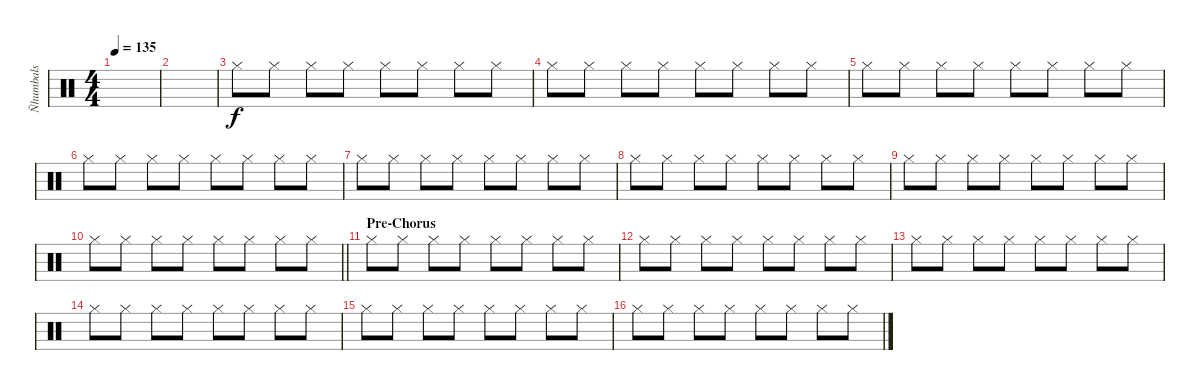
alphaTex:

\track ("Ñhumbals" "Ñhumbals") {instrument percussion}
\staff {score}
\articulation defaults
\ts (4 4)
\tempo 135
\clef neutral
\ks c
|
|
"Hi-Hat (closed)".8 "Hi-Hat (closed)".8 "Hi-Hat (closed)".8 "Hi-Hat (closed)".8 "Hi-Hat (closed)".8 "Hi-Hat (closed)".8 "Hi-Hat (closed)".8 "Hi-Hat (closed)".8 |
"Hi-Hat (closed)".8 "Hi-Hat (closed)".8 "Hi-Hat (closed)".8 "Hi-Hat (closed)".8 "Hi-Hat (closed)".8 "Hi-Hat (closed)".8 "Hi-Hat (closed)".8 "Hi-Hat (closed)".8 |
"Hi-Hat (closed)".8 "Hi-Hat (closed)".8 "Hi-Hat (closed)".8 "Hi-Hat (closed)".8 "Hi-Hat (closed)".8 "Hi-Hat (closed)".8 "Hi-Hat (closed)".8 "Hi-Hat (closed)".8 |
"Hi-Hat (closed)".8 "Hi-Hat (closed)".8 "Hi-Hat (closed)".8 "Hi-Hat (closed)".8 "Hi-Hat (closed)".8 "Hi-Hat (closed)".8 "Hi-Hat (closed)".8 "Hi-Hat (closed)".8 |
"Hi-Hat (closed)".8 "Hi-Hat (closed)".8 "Hi-Hat (closed)".8 "Hi-Hat (closed)".8 "Hi-Hat (closed)".8 "Hi-Hat (closed)".8 "Hi-Hat (closed)".8 "Hi-Hat (closed)".8 |
"Hi-Hat (closed)".8 "Hi-Hat (closed)".8 "Hi-Hat (closed)".8 "Hi-Hat (closed)".8 "Hi-Hat (closed)".8 "Hi-Hat (closed)".8 "Hi-Hat (closed)".8 "Hi-Hat (closed)".8 |
"Hi-Hat (closed)".8 "Hi-Hat (closed)".8 "Hi-Hat (closed)".8 "Hi-Hat (closed)".8 "Hi-Hat (closed)".8 "Hi-Hat (closed)".8 "Hi-Hat (closed)".8 "Hi-Hat (closed)".8 |
\barLineRight lightlight "Hi-Hat (closed)".8 "Hi-Hat (closed)".8 "Hi-Hat (closed)".8 "Hi-Hat (closed)".8 "Hi-Hat (closed)".8 "Hi-Hat (closed)".8 "Hi-Hat (closed)".8 "Hi-Hat (closed)".8
|
\section ("" "Pre-Chorus")
"Hi-Hat (closed)".8 "Hi-Hat (closed)".8 "Hi-Hat (closed)".8 "Hi-Hat (closed)".8 "Hi-Hat (closed)".8 "Hi-Hat (closed)".8 "Hi-Hat (closed)".8 "Hi-Hat (closed)".8 |
"Hi-Hat (closed)".8 "Hi-Hat (closed)".8 "Hi-Hat (closed)".8 "Hi-Hat (closed)".8 "Hi-Hat (closed)".8 "Hi-Hat (closed)".8 "Hi-Hat (closed)".8 "Hi-Hat (closed)".8 |
"Hi-Hat (closed)".8 "Hi-Hat (closed)".8 "Hi-Hat (closed)".8 "Hi-Hat (closed)".8 "Hi-Hat (closed)".8 "Hi-Hat (closed)".8 "Hi-Hat (closed)".8 "Hi-Hat (closed)".8 |
"Hi-Hat (closed)".8 "Hi-Hat (closed)".8 "Hi-Hat (closed)".8 "Hi-Hat (closed)".8 "Hi-Hat (closed)".8 "Hi-Hat (closed)".8 "Hi-Hat (closed)".8 "Hi-Hat (closed)".8 |
"Hi-Hat (closed)".8 "Hi-Hat (closed)".8 "Hi-Hat (closed)".8 "Hi-Hat (closed)".8 "Hi-Hat (closed)".8 "Hi-Hat (closed)".8 "Hi-Hat (closed)".8 "Hi-Hat (closed)".8 |
"Hi-Hat (closed)".8 "Hi-Hat (closed)".8 "Hi-Hat (closed)".8 "Hi-Hat (closed)".8 "Hi-Hat (closed)".8 "Hi-Hat (closed)".8 "Hi-Hat (closed)".8 "Hi-Hat (closed)".8
